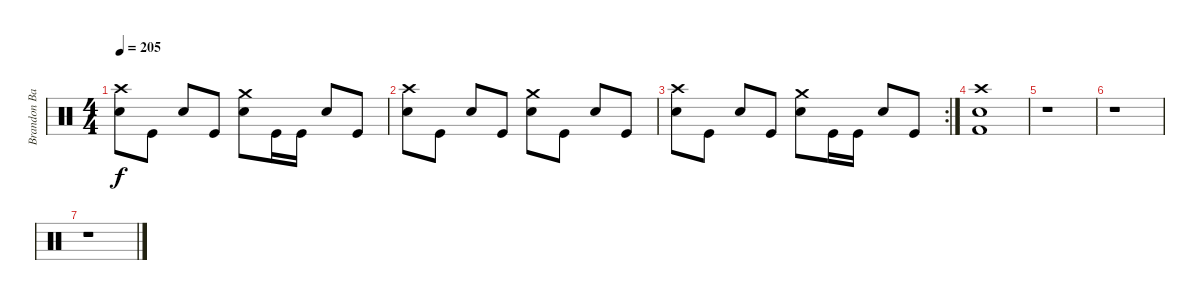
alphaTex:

\track ("Brandon Barnes" "Brandon Ba") {instrument percussion}
\staff {score}
\articulation defaults
\ts (4 4)
\tempo 205
\clef neutral
\ks c
("Electric Snare (hit)" "Crash high (hit)").8{dy f} "Kick (hit)".8 "Electric Snare (hit)".8 "Kick (hit)".8 ("Electric Snare (hit)" "Crash medium (hit)").8 "Kick (hit)".16 "Kick (hit)".16 "Electric Snare (hit)".8 "Kick (hit)".8 |
("Electric Snare (hit)" "Crash high (hit)").8 "Kick (hit)".8 "Electric Snare (hit)".8 "Kick (hit)".8 ("Electric Snare (hit)" "Crash medium (hit)").8 "Kick (hit)".8 "Electric Snare (hit)".8 "Kick (hit)".8 |
\rc 2
("Electric Snare (hit)" "Crash high (hit)").8 "Kick (hit)".8 "Electric Snare (hit)".8 "Kick (hit)".8 ("Electric Snare (hit)" "Crash medium (hit)").8 "Kick (hit)".16 "Kick (hit)".16 "Electric Snare (hit)".8 "Kick (hit)".8 |
("Crash high (hit)" "Electric Snare (hit)" "Kick (hit) 2").1 |
r.1 |
r.1 |
r.1
